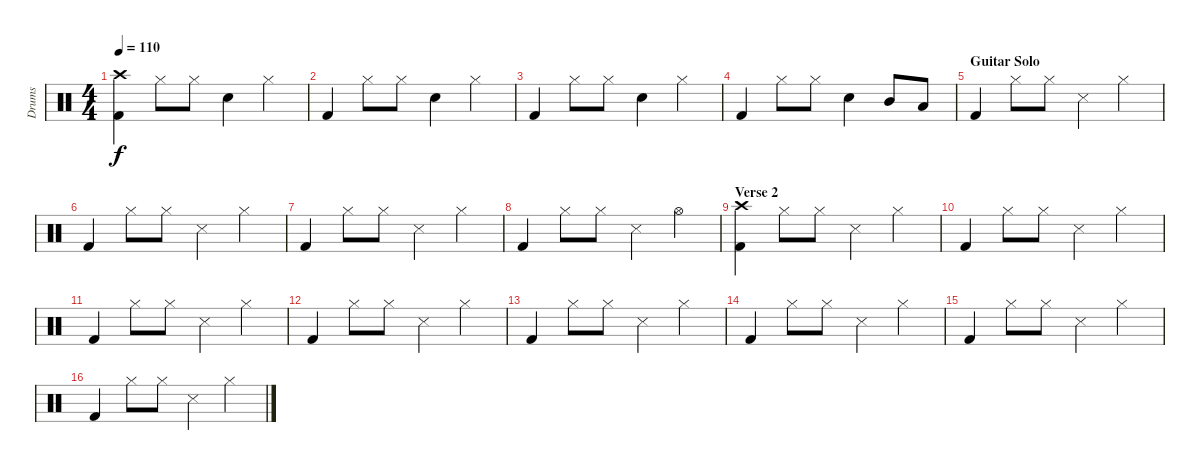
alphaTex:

\track ("Drums" "Drums") {instrument percussion}
\staff {score}
\articulation defaults
\ts (4 4)
\tempo 110
\clef neutral
\ks c
("Kick (hit) 2" "Crash high (hit)").4{dy f} "Hi-Hat (closed)".8 "Hi-Hat (closed)".8 "Snare (hit) 2".4 "Hi-Hat (closed)".4 |
"Kick (hit) 2".4 "Hi-Hat (closed)".8 "Hi-Hat (closed)".8 "Snare (hit) 2".4 "Hi-Hat (closed)".4 |
"Kick (hit) 2".4 "Hi-Hat (closed)".8 "Hi-Hat (closed)".8 "Snare (hit) 2".4 "Hi-Hat (closed)".4 |
"Kick (hit) 2".4 "Hi-Hat (closed)".8 "Hi-Hat (closed)".8 "Snare (hit) 2".4 "Mid Tom (hit)".8 "Low Tom (hit)".8 |
\section ("" "Guitar Solo")
"Kick (hit) 2".4 "Hi-Hat (closed)".8 "Hi-Hat (closed)".8 "Snare (side stick) 3".4 "Hi-Hat (closed)".4 |
"Kick (hit) 2".4 "Hi-Hat (closed)".8 "Hi-Hat (closed)".8 "Snare (side stick) 3".4 "Hi-Hat (closed)".4 |
"Kick (hit) 2".4 "Hi-Hat (closed)".8 "Hi-Hat (closed)".8 "Snare (side stick) 3".4 "Hi-Hat (closed)".4 |
"Kick (hit) 2".4 "Hi-Hat (closed)".8 "Hi-Hat (closed)".8 "Snare (side stick) 3".4 "Hi-Hat (open)".4 |
\section ("" "Verse 2")
("Kick (hit) 2" "Crash high (hit)").4 "Hi-Hat (closed)".8 "Hi-Hat (closed)".8 "Snare (side stick) 3".4 "Hi-Hat (closed)".4 |
"Kick (hit) 2".4 "Hi-Hat (closed)".8 "Hi-Hat (closed)".8 "Snare (side stick) 3".4 "Hi-Hat (closed)".4 |
"Kick (hit) 2".4 "Hi-Hat (closed)".8 "Hi-Hat (closed)".8 "Snare (side stick) 3".4 "Hi-Hat (closed)".4 |
"Kick (hit) 2".4 "Hi-Hat (closed)".8 "Hi-Hat (closed)".8 "Snare (side stick) 3".4 "Hi-Hat (closed)".4 |
"Kick (hit) 2".4 "Hi-Hat (closed)".8 "Hi-Hat (closed)".8 "Snare (side stick) 3".4 "Hi-Hat (closed)".4 |
"Kick (hit) 2".4 "Hi-Hat (closed)".8 "Hi-Hat (closed)".8 "Snare (side stick) 3".4 "Hi-Hat (closed)".4 |
"Kick (hit) 2".4 "Hi-Hat (closed)".8 "Hi-Hat (closed)".8 "Snare (side stick) 3".4 "Hi-Hat (closed)".4 |
"Kick (hit) 2".4 "Hi-Hat (closed)".8 "Hi-Hat (closed)".8 "Snare (side stick) 3".4 "Hi-Hat (closed)".4
